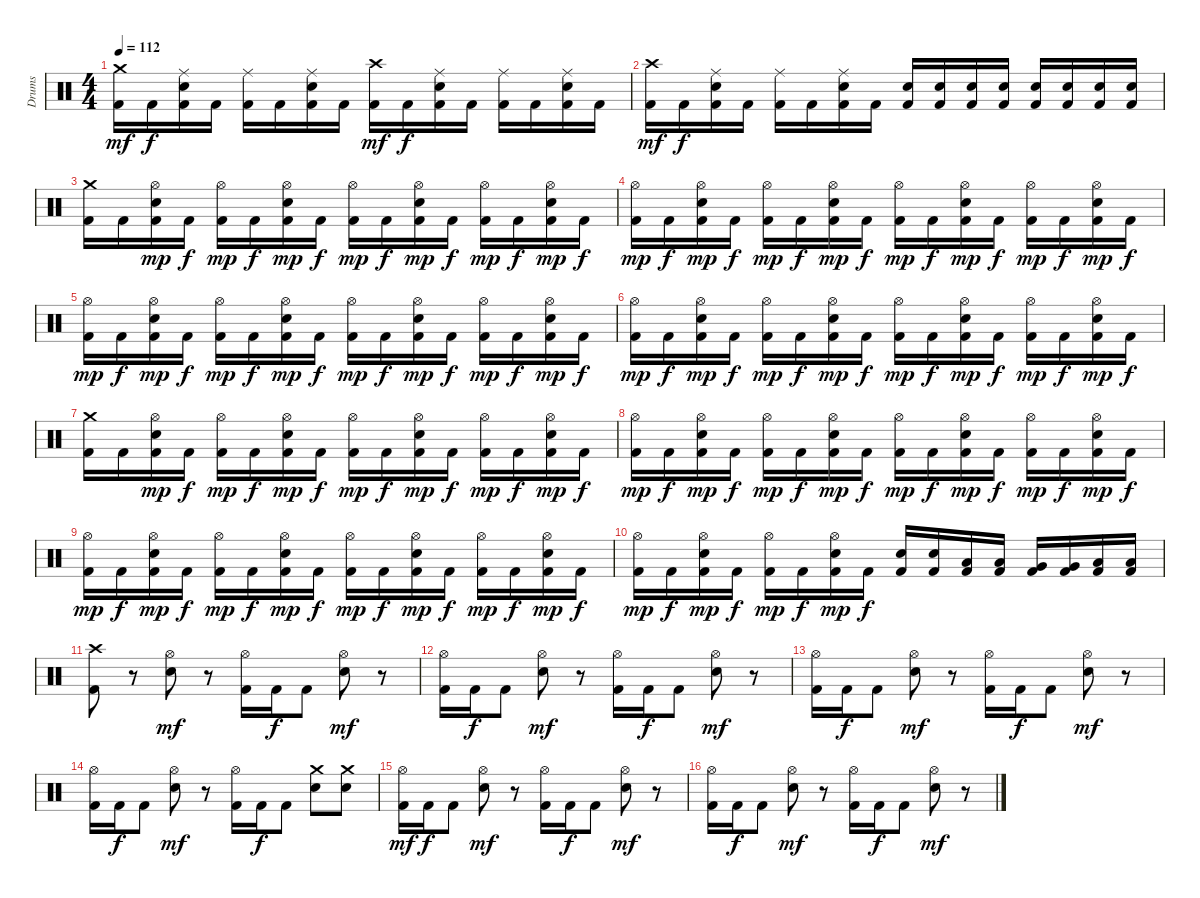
\track ("Drums" "Drums") {instrument percussion}
\staff {score}
\articulation defaults
\ts (4 4)
\tempo 112
\clef neutral
\ks c
("Crash medium (hit)" "Kick (hit) 2").16{dy mf} "Kick (hit) 2".16{dy f} ("Ride (middle)" "Electric Snare (hit)" "Kick (hit) 2").16 "Kick (hit) 2".16 ("Ride (middle)" "Kick (hit) 2").16 "Kick (hit) 2".16 ("Ride (middle)" "Electric Snare (hit)" "Kick (hit) 2").16 "Kick (hit) 2".16 ("Crash high (hit)" "Kick (hit) 2").16{dy mf} "Kick (hit) 2".16{dy f} ("Ride (middle)" "Electric Snare (hit)" "Kick (hit) 2").16 "Kick (hit) 2".16 ("Ride (middle)" "Kick (hit) 2").16 "Kick (hit) 2".16 ("Ride (middle)" "Electric Snare (hit)" "Kick (hit) 2").16 "Kick (hit) 2".16 |
("Crash high (hit)" "Kick (hit) 2").16{dy mf} "Kick (hit) 2".16{dy f} ("Ride (middle)" "Electric Snare (hit)" "Kick (hit) 2").16 "Kick (hit) 2".16 ("Ride (middle)" "Kick (hit) 2").16 "Kick (hit) 2".16 ("Ride (middle)" "Electric Snare (hit)" "Kick (hit) 2").16 "Kick (hit) 2".16 ("Electric Snare (hit)" "Kick (hit) 2").16 ("Electric Snare (hit)" "Kick (hit) 2").16 ("Electric Snare (hit)" "Kick (hit) 2").16 ("Electric Snare (hit)" "Kick (hit) 2").16 ("Electric Snare (hit)" "Kick (hit) 2").16 ("Electric Snare (hit)" "Kick (hit) 2").16 ("Electric Snare (hit)" "Kick (hit) 2").16 ("Electric Snare (hit)" "Kick (hit) 2").16 |
("Crash medium (hit)" "Kick (hit) 2").16 "Kick (hit) 2".16 ("Hi-Hat (open)" "Electric Snare (hit)" "Kick (hit) 2").16{dy mp} "Kick (hit) 2".16{dy f} ("Hi-Hat (open)" "Kick (hit) 2").16{dy mp} "Kick (hit) 2".16{dy f} ("Hi-Hat (open)" "Electric Snare (hit)" "Kick (hit) 2").16{dy mp} "Kick (hit) 2".16{dy f} ("Hi-Hat (open)" "Kick (hit) 2").16{dy mp} "Kick (hit) 2".16{dy f} ("Hi-Hat (open)" "Electric Snare (hit)" "Kick (hit) 2").16{dy mp} "Kick (hit) 2".16{dy f} ("Hi-Hat (open)" "Kick (hit) 2").16{dy mp} "Kick (hit) 2".16{dy f} ("Hi-Hat (open)" "Electric Snare (hit)" "Kick (hit) 2").16{dy mp} "Kick (hit) 2".16{dy f} |
("Hi-Hat (open)" "Kick (hit) 2").16{dy mp} "Kick (hit) 2".16{dy f} ("Hi-Hat (open)" "Electric Snare (hit)" "Kick (hit) 2").16{dy mp} "Kick (hit) 2".16{dy f} ("Hi-Hat (open)" "Kick (hit) 2").16{dy mp} "Kick (hit) 2".16{dy f} ("Hi-Hat (open)" "Electric Snare (hit)" "Kick (hit) 2").16{dy mp} "Kick (hit) 2".16{dy f} ("Hi-Hat (open)" "Kick (hit) 2").16{dy mp} "Kick (hit) 2".16{dy f} ("Hi-Hat (open)" "Electric Snare (hit)" "Kick (hit) 2").16{dy mp} "Kick (hit) 2".16{dy f} ("Hi-Hat (open)" "Kick (hit) 2").16{dy mp} "Kick (hit) 2".16{dy f} ("Hi-Hat (open)" "Electric Snare (hit)" "Kick (hit) 2").16{dy mp} "Kick (hit) 2".16{dy f} |
("Hi-Hat (open)" "Kick (hit) 2").16{dy mp} "Kick (hit) 2".16{dy f} ("Hi-Hat (open)" "Electric Snare (hit)" "Kick (hit) 2").16{dy mp} "Kick (hit) 2".16{dy f} ("Hi-Hat (open)" "Kick (hit) 2").16{dy mp} "Kick (hit) 2".16{dy f} ("Hi-Hat (open)" "Electric Snare (hit)" "Kick (hit) 2").16{dy mp} "Kick (hit) 2".16{dy f} ("Hi-Hat (open)" "Kick (hit) 2").16{dy mp} "Kick (hit) 2".16{dy f} ("Hi-Hat (open)" "Electric Snare (hit)" "Kick (hit) 2").16{dy mp} "Kick (hit) 2".16{dy f} ("Hi-Hat (open)" "Kick (hit) 2").16{dy mp} "Kick (hit) 2".16{dy f} ("Hi-Hat (open)" "Electric Snare (hit)" "Kick (hit) 2").16{dy mp} "Kick (hit) 2".16{dy f} |
("Hi-Hat (open)" "Kick (hit) 2").16{dy mp} "Kick (hit) 2".16{dy f} ("Hi-Hat (open)" "Electric Snare (hit)" "Kick (hit) 2").16{dy mp} "Kick (hit) 2".16{dy f} ("Hi-Hat (open)" "Kick (hit) 2").16{dy mp} "Kick (hit) 2".16{dy f} ("Hi-Hat (open)" "Electric Snare (hit)" "Kick (hit) 2").16{dy mp} "Kick (hit) 2".16{dy f} ("Hi-Hat (open)" "Kick (hit) 2").16{dy mp} "Kick (hit) 2".16{dy f} ("Hi-Hat (open)" "Electric Snare (hit)" "Kick (hit) 2").16{dy mp} "Kick (hit) 2".16{dy f} ("Hi-Hat (open)" "Kick (hit) 2").16{dy mp} "Kick (hit) 2".16{dy f} ("Hi-Hat (open)" "Electric Snare (hit)" "Kick (hit) 2").16{dy mp} "Kick (hit) 2".16{dy f} |
("Crash medium (hit)" "Kick (hit) 2").16 "Kick (hit) 2".16 ("Hi-Hat (open)" "Electric Snare (hit)" "Kick (hit) 2").16{dy mp} "Kick (hit) 2".16{dy f} ("Hi-Hat (open)" "Kick (hit) 2").16{dy mp} "Kick (hit) 2".16{dy f} ("Hi-Hat (open)" "Electric Snare (hit)" "Kick (hit) 2").16{dy mp} "Kick (hit) 2".16{dy f} ("Hi-Hat (open)" "Kick (hit) 2").16{dy mp} "Kick (hit) 2".16{dy f} ("Hi-Hat (open)" "Electric Snare (hit)" "Kick (hit) 2").16{dy mp} "Kick (hit) 2".16{dy f} ("Hi-Hat (open)" "Kick (hit) 2").16{dy mp} "Kick (hit) 2".16{dy f} ("Hi-Hat (open)" "Electric Snare (hit)" "Kick (hit) 2").16{dy mp} "Kick (hit) 2".16{dy f} |
("Hi-Hat (open)" "Kick (hit) 2").16{dy mp} "Kick (hit) 2".16{dy f} ("Hi-Hat (open)" "Electric Snare (hit)" "Kick (hit) 2").16{dy mp} "Kick (hit) 2".16{dy f} ("Hi-Hat (open)" "Kick (hit) 2").16{dy mp} "Kick (hit) 2".16{dy f} ("Hi-Hat (open)" "Electric Snare (hit)" "Kick (hit) 2").16{dy mp} "Kick (hit) 2".16{dy f} ("Hi-Hat (open)" "Kick (hit) 2").16{dy mp} "Kick (hit) 2".16{dy f} ("Hi-Hat (open)" "Electric Snare (hit)" "Kick (hit) 2").16{dy mp} "Kick (hit) 2".16{dy f} ("Hi-Hat (open)" "Kick (hit) 2").16{dy mp} "Kick (hit) 2".16{dy f} ("Hi-Hat (open)" "Electric Snare (hit)" "Kick (hit) 2").16{dy mp} "Kick (hit) 2".16{dy f} |
("Hi-Hat (open)" "Kick (hit) 2").16{dy mp} "Kick (hit) 2".16{dy f} ("Hi-Hat (open)" "Electric Snare (hit)" "Kick (hit) 2").16{dy mp} "Kick (hit) 2".16{dy f} ("Hi-Hat (open)" "Kick (hit) 2").16{dy mp} "Kick (hit) 2".16{dy f} ("Hi-Hat (open)" "Electric Snare (hit)" "Kick (hit) 2").16{dy mp} "Kick (hit) 2".16{dy f} ("Hi-Hat (open)" "Kick (hit) 2").16{dy mp} "Kick (hit) 2".16{dy f} ("Hi-Hat (open)" "Electric Snare (hit)" "Kick (hit) 2").16{dy mp} "Kick (hit) 2".16{dy f} ("Hi-Hat (open)" "Kick (hit) 2").16{dy mp} "Kick (hit) 2".16{dy f} ("Hi-Hat (open)" "Electric Snare (hit)" "Kick (hit) 2").16{dy mp} "Kick (hit) 2".16{dy f} |
("Hi-Hat (open)" "Kick (hit) 2").16{dy mp} "Kick (hit) 2".16{dy f} ("Hi-Hat (open)" "Electric Snare (hit)" "Kick (hit) 2").16{dy mp} "Kick (hit) 2".16{dy f} ("Hi-Hat (open)" "Kick (hit) 2").16{dy mp} "Kick (hit) 2".16{dy f} ("Hi-Hat (open)" "Electric Snare (hit)" "Kick (hit) 2").16{dy mp} "Kick (hit) 2".16{dy f} ("Electric Snare (hit)" "Kick (hit) 2").16 ("Electric Snare (hit)" "Kick (hit) 2").16 ("Low Tom (hit)" "Kick (hit) 2").16 ("Low Tom (hit)" "Kick (hit) 2").16 ("Very Low Tom (hit)" "Kick (hit) 2").16 ("Very Low Tom (hit)" "Kick (hit) 2").16 ("Low Floor Tom (hit)" "Kick (hit) 2").16 ("Low Floor Tom (hit)" "Kick (hit) 2").16 |
("Crash high (hit)" "Kick (hit) 2").8 r.8 ("Hi-Hat (open)" "Electric Snare (hit)").8{dy mf} r.8 ("Hi-Hat (open)" "Kick (hit) 2").16 "Kick (hit) 2".16{dy f} "Kick (hit) 2".8 ("Hi-Hat (open)" "Electric Snare (hit)").8{dy mf} r.8 |
("Hi-Hat (open)" "Kick (hit) 2").16 "Kick (hit) 2".16{dy f} "Kick (hit) 2".8 ("Hi-Hat (open)" "Electric Snare (hit)").8{dy mf} r.8 ("Hi-Hat (open)" "Kick (hit) 2").16 "Kick (hit) 2".16{dy f} "Kick (hit) 2".8 ("Hi-Hat (open)" "Electric Snare (hit)").8{dy mf} r.8 |
("Hi-Hat (open)" "Kick (hit) 2").16 "Kick (hit) 2".16{dy f} "Kick (hit) 2".8 ("Hi-Hat (open)" "Electric Snare (hit)").8{dy mf} r.8 ("Hi-Hat (open)" "Kick (hit) 2").16 "Kick (hit) 2".16{dy f} "Kick (hit) 2".8 ("Hi-Hat (open)" "Electric Snare (hit)").8{dy mf} r.8 |
("Hi-Hat (open)" "Kick (hit) 2").16 "Kick (hit) 2".16{dy f} "Kick (hit) 2".8 ("Hi-Hat (open)" "Electric Snare (hit)").8{dy mf} r.8 ("Hi-Hat (open)" "Kick (hit) 2").16 "Kick (hit) 2".16{dy f} "Kick (hit) 2".8 ("Crash medium (hit)" "Electric Snare (hit)").8 ("Crash medium (hit)" "Electric Snare (hit)").8 |
("Hi-Hat (open)" "Kick (hit) 2").16{dy mf} "Kick (hit) 2".16{dy f} "Kick (hit) 2".8 ("Hi-Hat (open)" "Electric Snare (hit)").8{dy mf} r.8 ("Hi-Hat (open)" "Kick (hit) 2").16 "Kick (hit) 2".16{dy f} "Kick (hit) 2".8 ("Hi-Hat (open)" "Electric Snare (hit)").8{dy mf} r.8 |
("Hi-Hat (open)" "Kick (hit) 2").16 "Kick (hit) 2".16{dy f} "Kick (hit) 2".8 ("Hi-Hat (open)" "Electric Snare (hit)").8{dy mf} r.8 ("Hi-Hat (open)" "Kick (hit) 2").16 "Kick (hit) 2".16{dy f} "Kick (hit) 2".8 ("Hi-Hat (open)" "Electric Snare (hit)").8{dy mf} r.8
